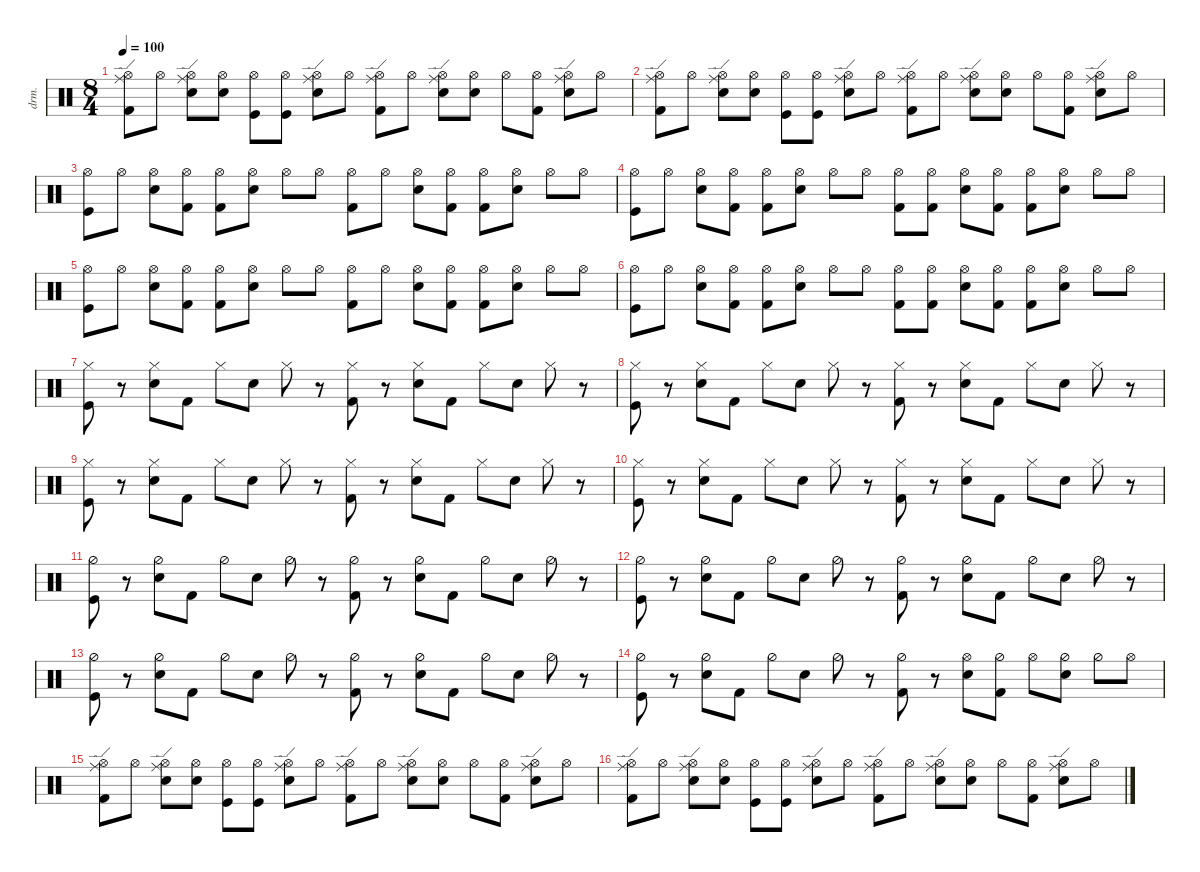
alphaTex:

\defaultSystemsLayout 4
\hideDynamics
\bracketExtendMode nobrackets
\otherSystemsTrackNameOrientation horizontal
\track ("Drumkit" "drm.") {instrument percussion}
\staff {score}
\articulation defaults
\ts (8 4)
\tempo 100
\clef neutral
\ks c
("Hi-Hat (open)" "Kick (hit) 2" "Ride (edge)").8{dy mf beam Down} "Hi-Hat (open)".8{beam Down} ("Hi-Hat (open)" "Snare (hit) 2" "Ride (edge)").8{beam Down} ("Hi-Hat (open)" "Snare (hit) 2").8{beam Down} ("Hi-Hat (open)" "Kick (hit)").8{beam Down} ("Hi-Hat (open)" "Kick (hit)").8{beam Down} ("Hi-Hat (open)" "Snare (hit) 2" "Ride (edge)").8{beam Down} "Hi-Hat (open)".8{beam Down} ("Hi-Hat (open)" "Kick (hit) 2" "Ride (edge)").8{beam Down} "Hi-Hat (open)".8{beam Down} ("Hi-Hat (open)" "Snare (hit) 2" "Ride (edge)").8{beam Down} ("Hi-Hat (open)" "Snare (hit) 2").8{beam Down} "Hi-Hat (open)".8{beam Down} ("Hi-Hat (open)" "Kick (hit) 2").8{beam Down} ("Hi-Hat (open)" "Snare (hit) 2" "Ride (edge)").8{beam Down} "Hi-Hat (open)".8{beam Down} |
("Hi-Hat (open)" "Kick (hit) 2" "Ride (edge)").8{beam Down} "Hi-Hat (open)".8{beam Down} ("Hi-Hat (open)" "Snare (hit) 2" "Ride (edge)").8{beam Down} ("Hi-Hat (open)" "Snare (hit) 2").8{beam Down} ("Hi-Hat (open)" "Kick (hit)").8{beam Down} ("Hi-Hat (open)" "Kick (hit)").8{beam Down} ("Hi-Hat (open)" "Snare (hit) 2" "Ride (edge)").8{beam Down} "Hi-Hat (open)".8{beam Down} ("Hi-Hat (open)" "Kick (hit) 2" "Ride (edge)").8{beam Down} "Hi-Hat (open)".8{beam Down} ("Hi-Hat (open)" "Snare (hit) 2" "Ride (edge)").8{beam Down} ("Hi-Hat (open)" "Snare (hit) 2").8{beam Down} "Hi-Hat (open)".8{beam Down} ("Hi-Hat (open)" "Kick (hit) 2").8{beam Down} ("Hi-Hat (open)" "Snare (hit) 2" "Ride (edge)").8{beam Down} "Hi-Hat (open)".8{beam Down} |
("Kick (hit)" "Hi-Hat (open)").8{beam Down} "Hi-Hat (open)".8{beam Down} ("Hi-Hat (open)" "Snare (hit) 2").8{beam Down} ("Kick (hit) 2" "Hi-Hat (open)").8{beam Down} ("Hi-Hat (open)" "Kick (hit) 2").8{beam Down} ("Snare (hit) 2" "Hi-Hat (open)").8{beam Down} "Hi-Hat (open)".8{beam Down} "Hi-Hat (open)".8{beam Down} ("Hi-Hat (open)" "Kick (hit) 2").8{beam Down} "Hi-Hat (open)".8{beam Down} ("Hi-Hat (open)" "Snare (hit) 2").8{beam Down} ("Kick (hit) 2" "Hi-Hat (open)").8{beam Down} ("Hi-Hat (open)" "Kick (hit) 2").8{beam Down} ("Snare (hit) 2" "Hi-Hat (open)").8{beam Down} "Hi-Hat (open)".8{beam Down} "Hi-Hat (open)".8{beam Down} |
("Kick (hit)" "Hi-Hat (open)").8{beam Down} "Hi-Hat (open)".8{beam Down} ("Hi-Hat (open)" "Snare (hit) 2").8{beam Down} ("Kick (hit) 2" "Hi-Hat (open)").8{beam Down} ("Hi-Hat (open)" "Kick (hit) 2").8{beam Down} ("Snare (hit) 2" "Hi-Hat (open)").8{beam Down} "Hi-Hat (open)".8{beam Down} "Hi-Hat (open)".8{beam Down} ("Hi-Hat (open)" "Kick (hit) 2").8{beam Down} ("Hi-Hat (open)" "Kick (hit) 2").8{beam Down} ("Hi-Hat (open)" "Snare (hit) 2").8{beam Down} ("Kick (hit) 2" "Hi-Hat (open)").8{beam Down} ("Hi-Hat (open)" "Kick (hit) 2").8{beam Down} ("Snare (hit) 2" "Hi-Hat (open)").8{beam Down} "Hi-Hat (open)".8{beam Down} "Hi-Hat (open)".8{beam Down} |
("Kick (hit)" "Hi-Hat (open)").8{beam Down} "Hi-Hat (open)".8{beam Down} ("Hi-Hat (open)" "Snare (hit) 2").8{beam Down} ("Kick (hit) 2" "Hi-Hat (open)").8{beam Down} ("Hi-Hat (open)" "Kick (hit) 2").8{beam Down} ("Snare (hit) 2" "Hi-Hat (open)").8{beam Down} "Hi-Hat (open)".8{beam Down} "Hi-Hat (open)".8{beam Down} ("Hi-Hat (open)" "Kick (hit) 2").8{beam Down} "Hi-Hat (open)".8{beam Down} ("Hi-Hat (open)" "Snare (hit) 2").8{beam Down} ("Kick (hit) 2" "Hi-Hat (open)").8{beam Down} ("Hi-Hat (open)" "Kick (hit) 2").8{beam Down} ("Snare (hit) 2" "Hi-Hat (open)").8{beam Down} "Hi-Hat (open)".8{beam Down} "Hi-Hat (open)".8{beam Down} |
("Kick (hit)" "Hi-Hat (open)").8{beam Down} "Hi-Hat (open)".8{beam Down} ("Hi-Hat (open)" "Snare (hit) 2").8{beam Down} ("Kick (hit) 2" "Hi-Hat (open)").8{beam Down} ("Hi-Hat (open)" "Kick (hit) 2").8{beam Down} ("Snare (hit) 2" "Hi-Hat (open)").8{beam Down} "Hi-Hat (open)".8{beam Down} "Hi-Hat (open)".8{beam Down} ("Hi-Hat (open)" "Kick (hit) 2").8{beam Down} ("Hi-Hat (open)" "Kick (hit) 2").8{beam Down} ("Hi-Hat (open)" "Snare (hit) 2").8{beam Down} ("Kick (hit) 2" "Hi-Hat (open)").8{beam Down} ("Hi-Hat (open)" "Kick (hit) 2").8{beam Down} ("Snare (hit) 2" "Hi-Hat (open)").8{beam Down} "Hi-Hat (open)".8{beam Down} "Hi-Hat (open)".8{beam Down} |
("Kick (hit)" "Hi-Hat (closed)").8{beam Down} r.8{beam Down} ("Hi-Hat (closed)" "Snare (hit) 2").8{beam Down} "Kick (hit) 2".8{beam Down} "Hi-Hat (closed)".8{beam Down} "Snare (hit) 2".8{beam Down} "Hi-Hat (closed)".8{beam Down} r.8{beam Down} ("Hi-Hat (closed)" "Kick (hit) 2").8{beam Down} r.8{beam Down} ("Hi-Hat (closed)" "Snare (hit) 2").8{beam Down} "Kick (hit) 2".8{beam Down} "Hi-Hat (closed)".8{beam Down} "Snare (hit) 2".8{beam Down} "Hi-Hat (closed)".8{beam Down} r.8{beam Down} |
("Kick (hit)" "Hi-Hat (closed)").8{beam Down} r.8{beam Down} ("Hi-Hat (closed)" "Snare (hit) 2").8{beam Down} "Kick (hit) 2".8{beam Down} "Hi-Hat (closed)".8{beam Down} "Snare (hit) 2".8{beam Down} "Hi-Hat (closed)".8{beam Down} r.8{beam Down} ("Hi-Hat (closed)" "Kick (hit) 2").8{beam Down} r.8{beam Down} ("Hi-Hat (closed)" "Snare (hit) 2").8{beam Down} "Kick (hit) 2".8{beam Down} "Hi-Hat (closed)".8{beam Down} "Snare (hit) 2".8{beam Down} "Hi-Hat (closed)".8{beam Down} r.8{beam Down} |
("Kick (hit)" "Hi-Hat (closed)").8{beam Down} r.8{beam Down} ("Hi-Hat (closed)" "Snare (hit) 2").8{beam Down} "Kick (hit) 2".8{beam Down} "Hi-Hat (closed)".8{beam Down} "Snare (hit) 2".8{beam Down} "Hi-Hat (closed)".8{beam Down} r.8{beam Down} ("Hi-Hat (closed)" "Kick (hit) 2").8{beam Down} r.8{beam Down} ("Hi-Hat (closed)" "Snare (hit) 2").8{beam Down} "Kick (hit) 2".8{beam Down} "Hi-Hat (closed)".8{beam Down} "Snare (hit) 2".8{beam Down} "Hi-Hat (closed)".8{beam Down} r.8{beam Down} |
("Kick (hit)" "Hi-Hat (closed)").8{beam Down} r.8{beam Down} ("Hi-Hat (closed)" "Snare (hit) 2").8{beam Down} "Kick (hit) 2".8{beam Down} "Hi-Hat (closed)".8{beam Down} "Snare (hit) 2".8{beam Down} "Hi-Hat (closed)".8{beam Down} r.8{beam Down} ("Hi-Hat (closed)" "Kick (hit) 2").8{beam Down} r.8{beam Down} ("Hi-Hat (closed)" "Snare (hit) 2").8{beam Down} "Kick (hit) 2".8{beam Down} "Hi-Hat (closed)".8{beam Down} "Snare (hit) 2".8{beam Down} "Hi-Hat (closed)".8{beam Down} r.8{beam Down} |
("Kick (hit)" "Hi-Hat (half)").8{beam Down} r.8{beam Down} ("Hi-Hat (half)" "Snare (hit) 2").8{beam Down} "Kick (hit) 2".8{beam Down} "Hi-Hat (half)".8{beam Down} "Snare (hit) 2".8{beam Down} "Hi-Hat (half)".8{beam Down} r.8{beam Down} ("Hi-Hat (half)" "Kick (hit) 2").8{beam Down} r.8{beam Down} ("Hi-Hat (half)" "Snare (hit) 2").8{beam Down} "Kick (hit) 2".8{beam Down} "Hi-Hat (half)".8{beam Down} "Snare (hit) 2".8{beam Down} "Hi-Hat (half)".8{beam Down} r.8{beam Down} |
("Kick (hit)" "Hi-Hat (half)").8{beam Down} r.8{beam Down} ("Hi-Hat (half)" "Snare (hit) 2").8{beam Down} "Kick (hit) 2".8{beam Down} "Hi-Hat (half)".8{beam Down} "Snare (hit) 2".8{beam Down} "Hi-Hat (half)".8{beam Down} r.8{beam Down} ("Hi-Hat (half)" "Kick (hit) 2").8{beam Down} r.8{beam Down} ("Hi-Hat (half)" "Snare (hit) 2").8{beam Down} "Kick (hit) 2".8{beam Down} "Hi-Hat (half)".8{beam Down} "Snare (hit) 2".8{beam Down} "Hi-Hat (half)".8{beam Down} r.8{beam Down} |
("Kick (hit)" "Hi-Hat (half)").8{beam Down} r.8{beam Down} ("Hi-Hat (half)" "Snare (hit) 2").8{beam Down} "Kick (hit) 2".8{beam Down} "Hi-Hat (half)".8{beam Down} "Snare (hit) 2".8{beam Down} "Hi-Hat (half)".8{beam Down} r.8{beam Down} ("Hi-Hat (half)" "Kick (hit) 2").8{beam Down} r.8{beam Down} ("Hi-Hat (half)" "Snare (hit) 2").8{beam Down} "Kick (hit) 2".8{beam Down} "Hi-Hat (half)".8{beam Down} "Snare (hit) 2".8{beam Down} "Hi-Hat (half)".8{beam Down} r.8{beam Down} |
("Kick (hit)" "Hi-Hat (half)").8{beam Down} r.8{beam Down} ("Hi-Hat (half)" "Snare (hit) 2").8{beam Down} "Kick (hit) 2".8{beam Down} "Hi-Hat (half)".8{beam Down} "Snare (hit) 2".8{beam Down} "Hi-Hat (half)".8{beam Down} r.8{beam Down} ("Hi-Hat (half)" "Kick (hit) 2").8{beam Down} r.8{beam Down} ("Hi-Hat (open)" "Snare (hit) 2").8{beam Down} ("Kick (hit) 2" "Hi-Hat (half)").8{beam Down} "Hi-Hat (open)".8{beam Down} ("Snare (hit) 2" "Hi-Hat (half)").8{beam Down} "Hi-Hat (half)".8{beam Down} "Hi-Hat (open)".8{beam Down} |
("Hi-Hat (open)" "Kick (hit) 2" "Ride (edge)").8{beam Down} "Hi-Hat (open)".8{beam Down} ("Hi-Hat (open)" "Snare (hit) 2" "Ride (edge)").8{beam Down} ("Hi-Hat (open)" "Snare (hit) 2").8{beam Down} ("Hi-Hat (open)" "Kick (hit)").8{beam Down} ("Hi-Hat (open)" "Kick (hit)").8{beam Down} ("Hi-Hat (open)" "Snare (hit) 2" "Ride (edge)").8{beam Down} "Hi-Hat (open)".8{beam Down} ("Hi-Hat (open)" "Kick (hit) 2" "Ride (edge)").8{beam Down} "Hi-Hat (open)".8{beam Down} ("Hi-Hat (open)" "Snare (hit) 2" "Ride (edge)").8{beam Down} ("Hi-Hat (open)" "Snare (hit) 2").8{beam Down} "Hi-Hat (open)".8{beam Down} ("Hi-Hat (open)" "Kick (hit) 2").8{beam Down} ("Hi-Hat (open)" "Snare (hit) 2" "Ride (edge)").8{beam Down} "Hi-Hat (open)".8{beam Down} |
("Hi-Hat (open)" "Kick (hit) 2" "Ride (edge)").8{beam Down} "Hi-Hat (open)".8{beam Down} ("Hi-Hat (open)" "Snare (hit) 2" "Ride (edge)").8{beam Down} ("Hi-Hat (open)" "Snare (hit) 2").8{beam Down} ("Hi-Hat (open)" "Kick (hit)").8{beam Down} ("Hi-Hat (open)" "Kick (hit)").8{beam Down} ("Hi-Hat (open)" "Snare (hit) 2" "Ride (edge)").8{beam Down} "Hi-Hat (open)".8{beam Down} ("Hi-Hat (open)" "Kick (hit) 2" "Ride (edge)").8{beam Down} "Hi-Hat (open)".8{beam Down} ("Hi-Hat (open)" "Snare (hit) 2" "Ride (edge)").8{beam Down} ("Hi-Hat (open)" "Snare (hit) 2").8{beam Down} "Hi-Hat (open)".8{beam Down} ("Hi-Hat (open)" "Kick (hit) 2").8{beam Down} ("Hi-Hat (open)" "Snare (hit) 2" "Ride (edge)").8{beam Down} "Hi-Hat (open)".8{beam Down}
